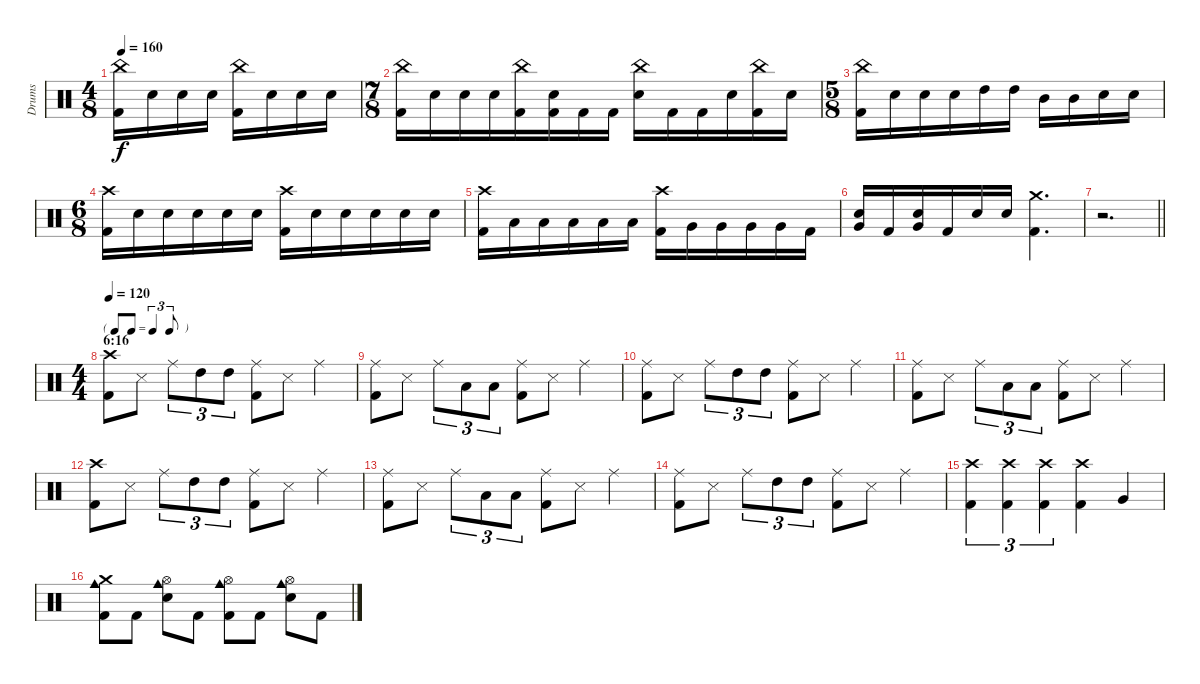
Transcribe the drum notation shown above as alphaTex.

\track ("Drums" "Drums") {instrument percussion}
\staff {score}
\articulation defaults
\ts (4 8)
\tempo 160
\clef neutral
\ks c
("China (hit)" "Kick (hit) 2").16{dy f} "Electric Snare (hit)".16 "Electric Snare (hit)".16 "Electric Snare (hit)".16 ("China (hit)" "Kick (hit) 2").16 "Electric Snare (hit)".16 "Electric Snare (hit)".16 "Electric Snare (hit)".16 |
\ts (7 8)
("China (hit)" "Kick (hit) 2").16 "Electric Snare (hit)".16 "Electric Snare (hit)".16 "Electric Snare (hit)".16 ("China (hit)" "Kick (hit) 2").16 ("Electric Snare (hit)" "Kick (hit) 2").16 "Kick (hit) 2".16 "Kick (hit) 2".16 ("China (hit)" "Electric Snare (hit)").16 "Kick (hit) 2".16 "Kick (hit) 2".16 "Electric Snare (hit)".16 ("China (hit)" "Kick (hit) 2").16 "Electric Snare (hit)".16 |
\ts (5 8)
("China (hit)" "Kick (hit) 2").16 "Electric Snare (hit)".16 "Electric Snare (hit)".16 "Electric Snare (hit)".16 "High Tom (hit)".16 "High Tom (hit)".16 "Mid Tom (hit)".16 "Mid Tom (hit)".16 "Electric Snare (hit)".16 "Electric Snare (hit)".16 |
\ts (6 8)
("Crash high (hit)" "Kick (hit) 2").16 "Electric Snare (hit)".16 "Electric Snare (hit)".16 "Electric Snare (hit)".16 "Electric Snare (hit)".16 "Electric Snare (hit)".16 ("Crash high (hit)" "Kick (hit) 2").16 "Electric Snare (hit)".16 "Electric Snare (hit)".16 "Electric Snare (hit)".16 "Electric Snare (hit)".16 "Electric Snare (hit)".16 |
("Crash high (hit)" "Kick (hit) 2").16 "Low Tom (hit)".16 "Low Tom (hit)".16 "Low Tom (hit)".16 "Low Tom (hit)".16 "Low Tom (hit)".16 ("Crash high (hit)" "Kick (hit) 2").16 "Very Low Tom (hit)".16 "Very Low Tom (hit)".16 "Very Low Tom (hit)".16 "Very Low Tom (hit)".16 "Kick (hit) 2".16 |
("Electric Snare (hit)" "Very Low Tom (hit)").16 "Kick (hit) 2".16 ("Electric Snare (hit)" "Very Low Tom (hit)").16 "Kick (hit) 2".16 "Electric Snare (hit)".16 "Electric Snare (hit)".16 ("Crash medium (hit)" "Kick (hit) 2").4{d} |
\barLineRight lightlight
r.2{d} |
\ts (4 4)
\tf triplet8th
\section ("" "6:16")
\tempo 120
("Crash high (hit)" "Kick (hit) 2").8 "Snare (side stick) 3".8 "Ride (middle)".8{tu (3 2)} "High Tom (hit)".8{tu (3 2)} "High Tom (hit)".8{tu (3 2)} ("Ride (middle)" "Kick (hit) 2").8 "Snare (side stick) 3".8 "Ride (middle)".4 |
("Ride (middle)" "Kick (hit) 2").8 "Snare (side stick) 3".8 "Ride (middle)".8{tu (3 2)} "Low Tom (hit)".8{tu (3 2)} "Low Tom (hit)".8{tu (3 2)} ("Ride (middle)" "Kick (hit) 2").8 "Snare (side stick) 3".8 "Ride (middle)".4 |
("Ride (middle)" "Kick (hit) 2").8 "Snare (side stick) 3".8 "Ride (middle)".8{tu (3 2)} "High Tom (hit)".8{tu (3 2)} "High Tom (hit)".8{tu (3 2)} ("Ride (middle)" "Kick (hit) 2").8 "Snare (side stick) 3".8 "Ride (middle)".4 |
("Ride (middle)" "Kick (hit) 2").8 "Snare (side stick) 3".8 "Ride (middle)".8{tu (3 2)} "Low Tom (hit)".8{tu (3 2)} "Low Tom (hit)".8{tu (3 2)} ("Ride (middle)" "Kick (hit) 2").8 "Snare (side stick) 3".8 "Ride (middle)".4 |
("Crash high (hit)" "Kick (hit) 2").8 "Snare (side stick) 3".8 "Ride (middle)".8{tu (3 2)} "High Tom (hit)".8{tu (3 2)} "High Tom (hit)".8{tu (3 2)} ("Ride (middle)" "Kick (hit) 2").8 "Snare (side stick) 3".8 "Ride (middle)".4 |
("Ride (middle)" "Kick (hit) 2").8 "Snare (side stick) 3".8 "Ride (middle)".8{tu (3 2)} "Low Tom (hit)".8{tu (3 2)} "Low Tom (hit)".8{tu (3 2)} ("Ride (middle)" "Kick (hit) 2").8 "Snare (side stick) 3".8 "Ride (middle)".4 |
("Ride (middle)" "Kick (hit) 2").8 "Snare (side stick) 3".8 "Ride (middle)".8{tu (3 2)} "High Tom (hit)".8{tu (3 2)} "High Tom (hit)".8{tu (3 2)} ("Ride (middle)" "Kick (hit) 2").8 "Snare (side stick) 3".8 "Ride (middle)".4 |
("Crash high (hit)" "Kick (hit) 2").4{tu (3 2)} ("Crash high (hit)" "Kick (hit) 2").4{tu (3 2)} ("Crash high (hit)" "Kick (hit) 2").4{tu (3 2)} ("Crash high (hit)" "Kick (hit) 2").4 "Very Low Tom (hit)".4 |
("Crash medium (hit)" "Cowbell medium (hit)" "Kick (hit) 2").8 "Kick (hit) 2".8 ("Hi-Hat (open)" "Cowbell medium (hit)" "Electric Snare (hit)").8 "Kick (hit) 2".8 ("Hi-Hat (open)" "Cowbell medium (hit)" "Kick (hit) 2").8 "Kick (hit) 2".8 ("Hi-Hat (open)" "Cowbell medium (hit)" "Electric Snare (hit)").8 "Kick (hit) 2".8
